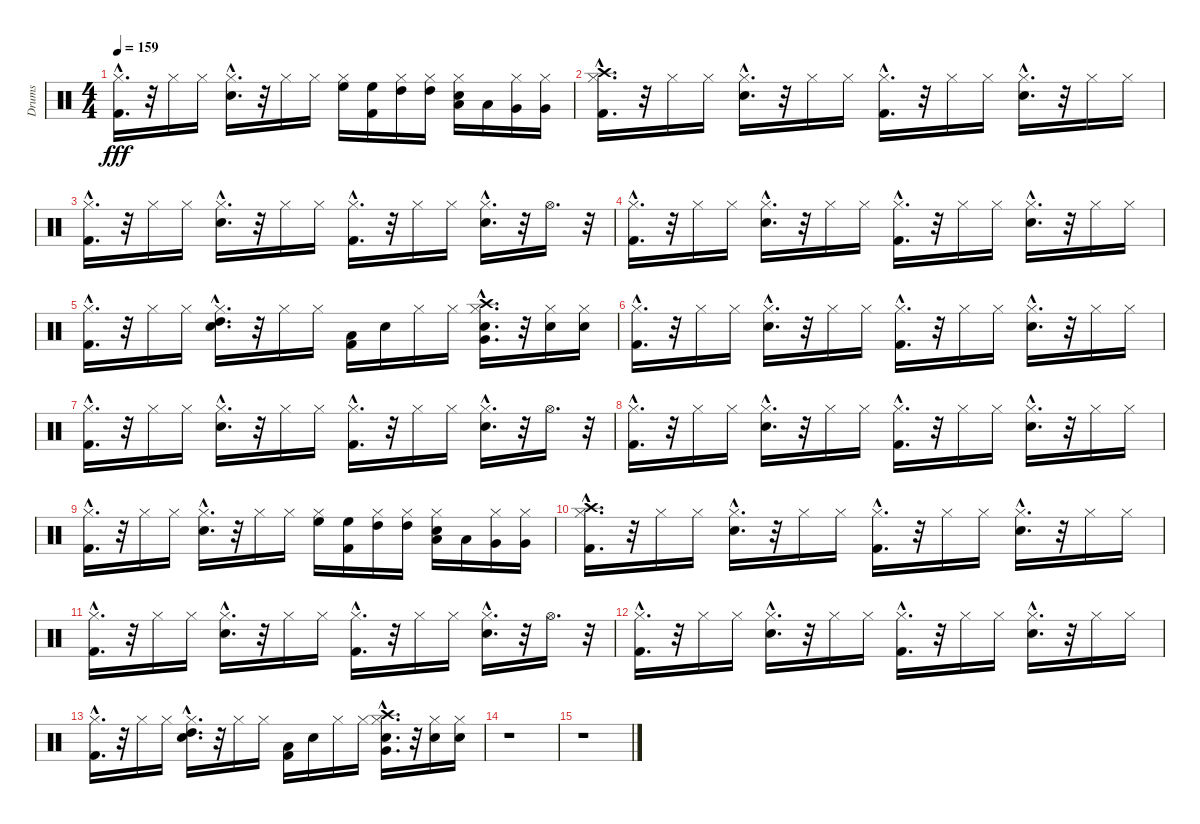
\track ("Drums" "Drums") {instrument percussion}
\staff {score}
\articulation defaults
\ts (4 4)
\tempo 159
\clef neutral
\ks c
("Hi-Hat (closed)"{hac} "Kick (hit) 2"{hac}).16{d dy fff} r.32 "Hi-Hat (closed)".16 "Hi-Hat (closed)".16 ("Hi-Hat (closed)"{hac} "Electric Snare (hit)"{hac}).16{d} r.32 "Hi-Hat (closed)".16 "Hi-Hat (closed)".16 ("Hi-Hat (closed)" "High Floor Tom (hit)").16 ("Kick (hit) 2" "High Floor Tom (hit)").16 ("Hi-Hat (closed)" "High Tom (hit)").16 ("Hi-Hat (closed)" "High Tom (hit)").16 ("Electric Snare (hit)" "Low Tom (hit)" "Hi-Hat (closed)").16 "Low Tom (hit)".16 ("Very Low Tom (hit)" "Hi-Hat (closed)").16 ("Very Low Tom (hit)" "Hi-Hat (closed)").16 |
("Crash high (hit)"{hac} "Hi-Hat (closed)"{hac} "Kick (hit) 2"{hac}).16{d} r.32 "Hi-Hat (closed)".16 "Hi-Hat (closed)".16 ("Hi-Hat (closed)"{hac} "Electric Snare (hit)"{hac}).16{d} r.32 "Hi-Hat (closed)".16 "Hi-Hat (closed)".16 ("Hi-Hat (closed)"{hac} "Kick (hit) 2"{hac}).16{d} r.32 "Hi-Hat (closed)".16 "Hi-Hat (closed)".16 ("Hi-Hat (closed)"{hac} "Electric Snare (hit)"{hac}).16{d} r.32 "Hi-Hat (closed)".16 "Hi-Hat (closed)".16 |
("Hi-Hat (closed)"{hac} "Kick (hit) 2"{hac}).16{d} r.32 "Hi-Hat (closed)".16 "Hi-Hat (closed)".16 ("Hi-Hat (closed)"{hac} "Electric Snare (hit)"{hac}).16{d} r.32 "Hi-Hat (closed)".16 "Hi-Hat (closed)".16 ("Hi-Hat (closed)"{hac} "Kick (hit) 2"{hac}).16{d} r.32 "Hi-Hat (closed)".16 "Hi-Hat (closed)".16 ("Hi-Hat (closed)"{hac} "Electric Snare (hit)"{hac}).16{d} r.32 "Hi-Hat (open)".16{d} r.32 |
("Hi-Hat (closed)"{hac} "Kick (hit) 2"{hac}).16{d} r.32 "Hi-Hat (closed)".16 "Hi-Hat (closed)".16 ("Hi-Hat (closed)"{hac} "Electric Snare (hit)"{hac}).16{d} r.32 "Hi-Hat (closed)".16 "Hi-Hat (closed)".16 ("Hi-Hat (closed)"{hac} "Kick (hit) 2"{hac}).16{d} r.32 "Hi-Hat (closed)".16 "Hi-Hat (closed)".16 ("Hi-Hat (closed)"{hac} "Electric Snare (hit)"{hac}).16{d} r.32 "Hi-Hat (closed)".16 "Hi-Hat (closed)".16 |
("Hi-Hat (closed)"{hac} "Kick (hit) 2"{hac}).16{d} r.32 "Hi-Hat (closed)".16 "Hi-Hat (closed)".16 ("Hi-Hat (closed)"{hac} "High Tom (hit)"{hac} "Electric Snare (hit)"{hac}).16{d} r.32 "Hi-Hat (closed)".16 "Hi-Hat (closed)".16 ("Kick (hit) 2" "Low Tom (hit)").16 "Electric Snare (hit)".16 "Hi-Hat (closed)".16 "Hi-Hat (closed)".16 ("Electric Snare (hit)"{hac} "Hi-Hat (closed)"{hac} "Very Low Tom (hit)"{hac} "Crash high (hit)"{hac}).16{d} r.32 ("Electric Snare (hit)" "Hi-Hat (closed)").16 ("Electric Snare (hit)" "Hi-Hat (closed)").16 |
("Hi-Hat (closed)"{hac} "Kick (hit) 2"{hac}).16{d} r.32 "Hi-Hat (closed)".16 "Hi-Hat (closed)".16 ("Hi-Hat (closed)"{hac} "Electric Snare (hit)"{hac}).16{d} r.32 "Hi-Hat (closed)".16 "Hi-Hat (closed)".16 ("Hi-Hat (closed)"{hac} "Kick (hit) 2"{hac}).16{d} r.32 "Hi-Hat (closed)".16 "Hi-Hat (closed)".16 ("Hi-Hat (closed)"{hac} "Electric Snare (hit)"{hac}).16{d} r.32 "Hi-Hat (closed)".16 "Hi-Hat (closed)".16 |
("Hi-Hat (closed)"{hac} "Kick (hit) 2"{hac}).16{d} r.32 "Hi-Hat (closed)".16 "Hi-Hat (closed)".16 ("Hi-Hat (closed)"{hac} "Electric Snare (hit)"{hac}).16{d} r.32 "Hi-Hat (closed)".16 "Hi-Hat (closed)".16 ("Hi-Hat (closed)"{hac} "Kick (hit) 2"{hac}).16{d} r.32 "Hi-Hat (closed)".16 "Hi-Hat (closed)".16 ("Hi-Hat (closed)"{hac} "Electric Snare (hit)"{hac}).16{d} r.32 "Hi-Hat (open)".16{d} r.32 |
("Hi-Hat (closed)"{hac} "Kick (hit) 2"{hac}).16{d} r.32 "Hi-Hat (closed)".16 "Hi-Hat (closed)".16 ("Hi-Hat (closed)"{hac} "Electric Snare (hit)"{hac}).16{d} r.32 "Hi-Hat (closed)".16 "Hi-Hat (closed)".16 ("Hi-Hat (closed)"{hac} "Kick (hit) 2"{hac}).16{d} r.32 "Hi-Hat (closed)".16 "Hi-Hat (closed)".16 ("Hi-Hat (closed)"{hac} "Electric Snare (hit)"{hac}).16{d} r.32 "Hi-Hat (closed)".16 "Hi-Hat (closed)".16 |
("Kick (hit) 2"{hac} "Hi-Hat (closed)"{hac}).16{d} r.32 "Hi-Hat (closed)".16 "Hi-Hat (closed)".16 ("Electric Snare (hit)"{hac} "Hi-Hat (closed)"{hac}).16{d} r.32 "Hi-Hat (closed)".16 "Hi-Hat (closed)".16 ("High Floor Tom (hit)" "Hi-Hat (closed)").16 ("High Floor Tom (hit)" "Kick (hit) 2").16 ("High Tom (hit)" "Hi-Hat (closed)").16 ("High Tom (hit)" "Hi-Hat (closed)").16 ("Hi-Hat (closed)" "Low Tom (hit)" "Electric Snare (hit)").16 "Low Tom (hit)".16 ("Hi-Hat (closed)" "Very Low Tom (hit)").16 ("Hi-Hat (closed)" "Very Low Tom (hit)").16 |
("Crash high (hit)"{hac} "Hi-Hat (closed)"{hac} "Kick (hit) 2"{hac}).16{d} r.32 "Hi-Hat (closed)".16 "Hi-Hat (closed)".16 ("Hi-Hat (closed)"{hac} "Electric Snare (hit)"{hac}).16{d} r.32 "Hi-Hat (closed)".16 "Hi-Hat (closed)".16 ("Hi-Hat (closed)"{hac} "Kick (hit) 2"{hac}).16{d} r.32 "Hi-Hat (closed)".16 "Hi-Hat (closed)".16 ("Hi-Hat (closed)"{hac} "Electric Snare (hit)"{hac}).16{d} r.32 "Hi-Hat (closed)".16 "Hi-Hat (closed)".16 |
("Hi-Hat (closed)"{hac} "Kick (hit) 2"{hac}).16{d} r.32 "Hi-Hat (closed)".16 "Hi-Hat (closed)".16 ("Hi-Hat (closed)"{hac} "Electric Snare (hit)"{hac}).16{d} r.32 "Hi-Hat (closed)".16 "Hi-Hat (closed)".16 ("Hi-Hat (closed)"{hac} "Kick (hit) 2"{hac}).16{d} r.32 "Hi-Hat (closed)".16 "Hi-Hat (closed)".16 ("Hi-Hat (closed)"{hac} "Electric Snare (hit)"{hac}).16{d} r.32 "Hi-Hat (open)".16{d} r.32 |
("Hi-Hat (closed)"{hac} "Kick (hit) 2"{hac}).16{d} r.32 "Hi-Hat (closed)".16 "Hi-Hat (closed)".16 ("Hi-Hat (closed)"{hac} "Electric Snare (hit)"{hac}).16{d} r.32 "Hi-Hat (closed)".16 "Hi-Hat (closed)".16 ("Hi-Hat (closed)"{hac} "Kick (hit) 2"{hac}).16{d} r.32 "Hi-Hat (closed)".16 "Hi-Hat (closed)".16 ("Hi-Hat (closed)"{hac} "Electric Snare (hit)"{hac}).16{d} r.32 "Hi-Hat (closed)".16 "Hi-Hat (closed)".16 |
("Kick (hit) 2"{hac} "Hi-Hat (closed)"{hac}).16{d} r.32 "Hi-Hat (closed)".16 "Hi-Hat (closed)".16 ("Electric Snare (hit)"{hac} "High Tom (hit)"{hac} "Hi-Hat (closed)"{hac}).16{d} r.32 "Hi-Hat (closed)".16 "Hi-Hat (closed)".16 ("Low Tom (hit)" "Kick (hit) 2").16 "Electric Snare (hit)".16 "Hi-Hat (closed)".16 "Hi-Hat (closed)".16 ("Crash high (hit)"{hac} "Very Low Tom (hit)"{hac} "Hi-Hat (closed)"{hac} "Electric Snare (hit)"{hac}).16{d} r.32 ("Hi-Hat (closed)" "Electric Snare (hit)").16 ("Hi-Hat (closed)" "Electric Snare (hit)").16 |
r.1 |
r.1
